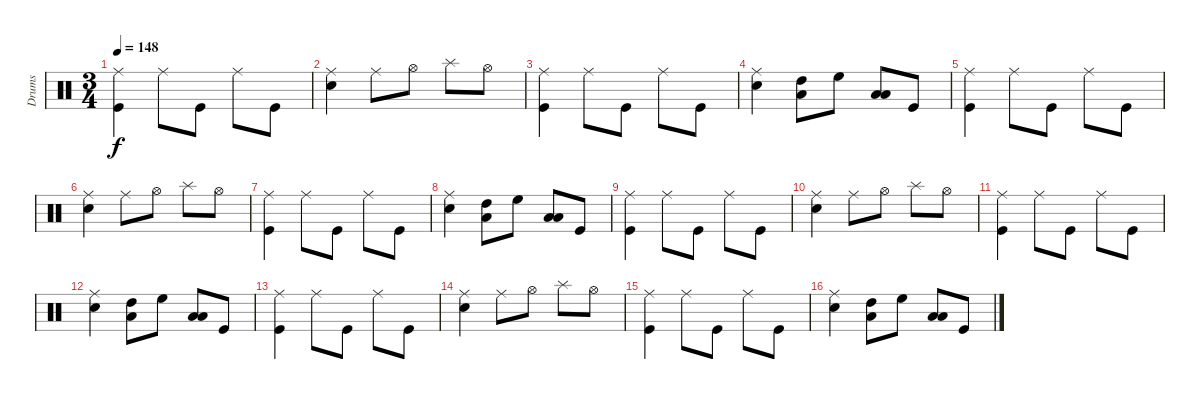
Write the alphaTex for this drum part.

\track ("Drums" "Drums") {instrument percussion}
\staff {score}
\articulation defaults
\ts (3 4)
\tempo 148
\clef neutral
\ks c
("Ride (middle)" "Kick (hit)").4{dy f} "Ride (middle)".8 "Kick (hit)".8 "Ride (middle)".8 "Kick (hit)".8 |
("Ride (middle)" "Snare (hit) 2").4 "Ride (middle)".8 "Hi-Hat (open)".8 "Splash (hit)".8 "Hi-Hat (open)".8 |
("Ride (middle)" "Kick (hit)").4 "Ride (middle)".8 "Kick (hit)".8 "Ride (middle)".8 "Kick (hit)".8 |
("Ride (middle)" "Snare (hit) 2").4 ("Low Floor Tom (hit)" "High Tom (hit)").8 "High Floor Tom (hit)".8 ("Low Floor Tom (hit)" "Low Tom (hit)").8 "Kick (hit)".8 |
("Ride (middle)" "Kick (hit)").4 "Ride (middle)".8 "Kick (hit)".8 "Ride (middle)".8 "Kick (hit)".8 |
("Ride (middle)" "Snare (hit) 2").4 "Ride (middle)".8 "Hi-Hat (open)".8 "Splash (hit)".8 "Hi-Hat (open)".8 |
("Ride (middle)" "Kick (hit)").4 "Ride (middle)".8 "Kick (hit)".8 "Ride (middle)".8 "Kick (hit)".8 |
("Ride (middle)" "Snare (hit) 2").4 ("Low Floor Tom (hit)" "High Tom (hit)").8 "High Floor Tom (hit)".8 ("Low Floor Tom (hit)" "Low Tom (hit)").8 "Kick (hit)".8 |
("Ride (middle)" "Kick (hit)").4 "Ride (middle)".8 "Kick (hit)".8 "Ride (middle)".8 "Kick (hit)".8 |
("Ride (middle)" "Snare (hit) 2").4 "Ride (middle)".8 "Hi-Hat (open)".8 "Splash (hit)".8 "Hi-Hat (open)".8 |
("Ride (middle)" "Kick (hit)").4 "Ride (middle)".8 "Kick (hit)".8 "Ride (middle)".8 "Kick (hit)".8 |
("Ride (middle)" "Snare (hit) 2").4 ("Low Floor Tom (hit)" "High Tom (hit)").8 "High Floor Tom (hit)".8 ("Low Floor Tom (hit)" "Low Tom (hit)").8 "Kick (hit)".8 |
("Ride (middle)" "Kick (hit)").4 "Ride (middle)".8 "Kick (hit)".8 "Ride (middle)".8 "Kick (hit)".8 |
("Ride (middle)" "Snare (hit) 2").4 "Ride (middle)".8 "Hi-Hat (open)".8 "Splash (hit)".8 "Hi-Hat (open)".8 |
("Ride (middle)" "Kick (hit)").4 "Ride (middle)".8 "Kick (hit)".8 "Ride (middle)".8 "Kick (hit)".8 |
("Ride (middle)" "Snare (hit) 2").4 ("Low Floor Tom (hit)" "High Tom (hit)").8 "High Floor Tom (hit)".8 ("Low Floor Tom (hit)" "Low Tom (hit)").8 "Kick (hit)".8
